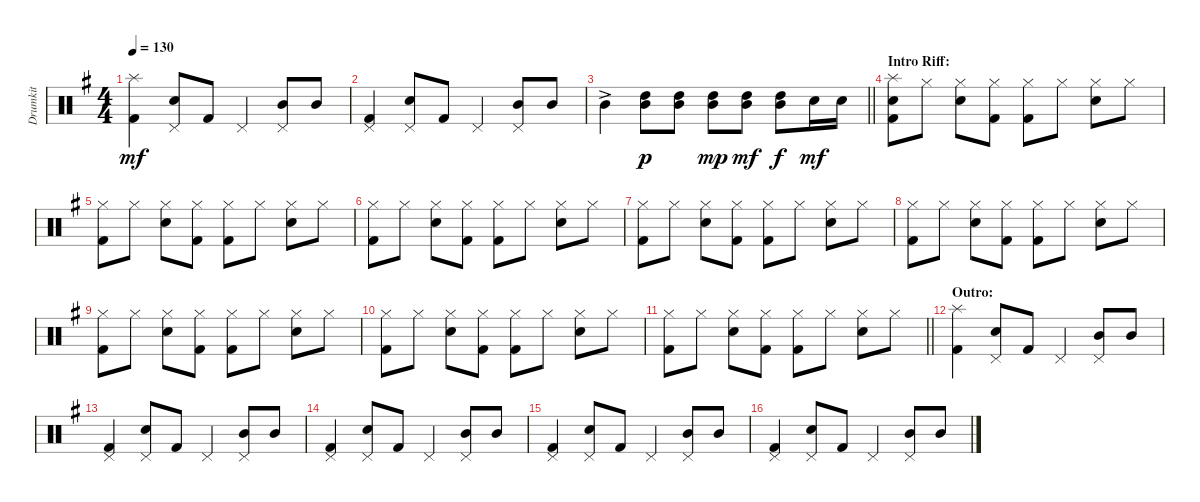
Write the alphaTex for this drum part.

\track ("Drumkit" "Drumkit") {instrument percussion}
\staff {score}
\articulation defaults
\ts (4 4)
\tempo 130
\clef neutral
\ks g
("Kick (hit) 2" "Splash (hit)").4{dy mf} ("Snare (hit) 2" "Pedal Hi-Hat (hit)").8 "Kick (hit) 2".8 "Pedal Hi-Hat (hit)".4 ("Pedal Hi-Hat (hit)" "Mid Tom (hit)").8 "Mid Tom (hit)".8 |
("Pedal Hi-Hat (hit)" "Kick (hit) 2").4 ("Pedal Hi-Hat (hit)" "Snare (hit) 2").8 "Kick (hit) 2".8 "Pedal Hi-Hat (hit)".4 ("Pedal Hi-Hat (hit)" "Mid Tom (hit)").8 "Mid Tom (hit)".8 |
\barLineRight lightlight "Mid Tom (hit)"{ac}.4
("Mid Tom (hit)" "High Tom (hit)").8{dy p} ("Mid Tom (hit)" "High Tom (hit)").8 ("Mid Tom (hit)" "High Tom (hit)").8{dy mp} ("Mid Tom (hit)" "High Tom (hit)").8{dy mf} ("Mid Tom (hit)" "High Tom (hit)").8{dy f} "Snare (hit) 2".16{dy mf} "Snare (hit) 2".16 |
\section ("" "Intro Riff:")
("Snare (hit) 2" "Splash (hit)" "Kick (hit) 2").8 "Hi-Hat (closed)".8 ("Hi-Hat (closed)" "Snare (hit) 2").8 ("Hi-Hat (closed)" "Kick (hit) 2").8 ("Hi-Hat (closed)" "Kick (hit) 2").8 "Hi-Hat (closed)".8 ("Hi-Hat (closed)" "Snare (hit) 2").8 "Hi-Hat (closed)".8 |
("Hi-Hat (closed)" "Kick (hit) 2").8 "Hi-Hat (closed)".8 ("Hi-Hat (closed)" "Snare (hit) 2").8 ("Hi-Hat (closed)" "Kick (hit) 2").8 ("Hi-Hat (closed)" "Kick (hit) 2").8 "Hi-Hat (closed)".8 ("Hi-Hat (closed)" "Snare (hit) 2").8 "Hi-Hat (closed)".8 |
("Hi-Hat (closed)" "Kick (hit) 2").8 "Hi-Hat (closed)".8 ("Hi-Hat (closed)" "Snare (hit) 2").8 ("Hi-Hat (closed)" "Kick (hit) 2").8 ("Hi-Hat (closed)" "Kick (hit) 2").8 "Hi-Hat (closed)".8 ("Hi-Hat (closed)" "Snare (hit) 2").8 "Hi-Hat (closed)".8 |
("Hi-Hat (closed)" "Kick (hit) 2").8 "Hi-Hat (closed)".8 ("Hi-Hat (closed)" "Snare (hit) 2").8 ("Hi-Hat (closed)" "Kick (hit) 2").8 ("Hi-Hat (closed)" "Kick (hit) 2").8 "Hi-Hat (closed)".8 ("Hi-Hat (closed)" "Snare (hit) 2").8 "Hi-Hat (closed)".8 |
("Hi-Hat (closed)" "Kick (hit) 2").8 "Hi-Hat (closed)".8 ("Hi-Hat (closed)" "Snare (hit) 2").8 ("Hi-Hat (closed)" "Kick (hit) 2").8 ("Hi-Hat (closed)" "Kick (hit) 2").8 "Hi-Hat (closed)".8 ("Hi-Hat (closed)" "Snare (hit) 2").8 "Hi-Hat (closed)".8 |
("Hi-Hat (closed)" "Kick (hit) 2").8 "Hi-Hat (closed)".8 ("Hi-Hat (closed)" "Snare (hit) 2").8 ("Hi-Hat (closed)" "Kick (hit) 2").8 ("Hi-Hat (closed)" "Kick (hit) 2").8 "Hi-Hat (closed)".8 ("Hi-Hat (closed)" "Snare (hit) 2").8 "Hi-Hat (closed)".8 |
("Hi-Hat (closed)" "Kick (hit) 2").8 "Hi-Hat (closed)".8 ("Hi-Hat (closed)" "Snare (hit) 2").8 ("Hi-Hat (closed)" "Kick (hit) 2").8 ("Hi-Hat (closed)" "Kick (hit) 2").8 "Hi-Hat (closed)".8 ("Hi-Hat (closed)" "Snare (hit) 2").8 "Hi-Hat (closed)".8 |
\barLineRight lightlight
("Hi-Hat (closed)" "Kick (hit) 2").8 "Hi-Hat (closed)".8 ("Hi-Hat (closed)" "Snare (hit) 2").8 ("Hi-Hat (closed)" "Kick (hit) 2").8 ("Hi-Hat (closed)" "Kick (hit) 2").8 "Hi-Hat (closed)".8 ("Hi-Hat (closed)" "Snare (hit) 2").8 "Hi-Hat (closed)".8 |
\section ("" "Outro:")
("Kick (hit) 2" "Splash (hit)").4 ("Snare (hit) 2" "Pedal Hi-Hat (hit)").8 "Kick (hit) 2".8 "Pedal Hi-Hat (hit)".4 ("Pedal Hi-Hat (hit)" "Mid Tom (hit)").8 "Mid Tom (hit)".8 |
("Pedal Hi-Hat (hit)" "Kick (hit) 2").4 ("Pedal Hi-Hat (hit)" "Snare (hit) 2").8 "Kick (hit) 2".8 "Pedal Hi-Hat (hit)".4 ("Pedal Hi-Hat (hit)" "Mid Tom (hit)").8 "Mid Tom (hit)".8 |
("Pedal Hi-Hat (hit)" "Kick (hit) 2").4 ("Pedal Hi-Hat (hit)" "Snare (hit) 2").8 "Kick (hit) 2".8 "Pedal Hi-Hat (hit)".4 ("Pedal Hi-Hat (hit)" "Mid Tom (hit)").8 "Mid Tom (hit)".8 |
("Pedal Hi-Hat (hit)" "Kick (hit) 2").4 ("Pedal Hi-Hat (hit)" "Snare (hit) 2").8 "Kick (hit) 2".8 "Pedal Hi-Hat (hit)".4 ("Pedal Hi-Hat (hit)" "Mid Tom (hit)").8 "Mid Tom (hit)".8 |
("Pedal Hi-Hat (hit)" "Kick (hit) 2").4 ("Pedal Hi-Hat (hit)" "Snare (hit) 2").8 "Kick (hit) 2".8 "Pedal Hi-Hat (hit)".4 ("Pedal Hi-Hat (hit)" "Mid Tom (hit)").8 "Mid Tom (hit)".8
